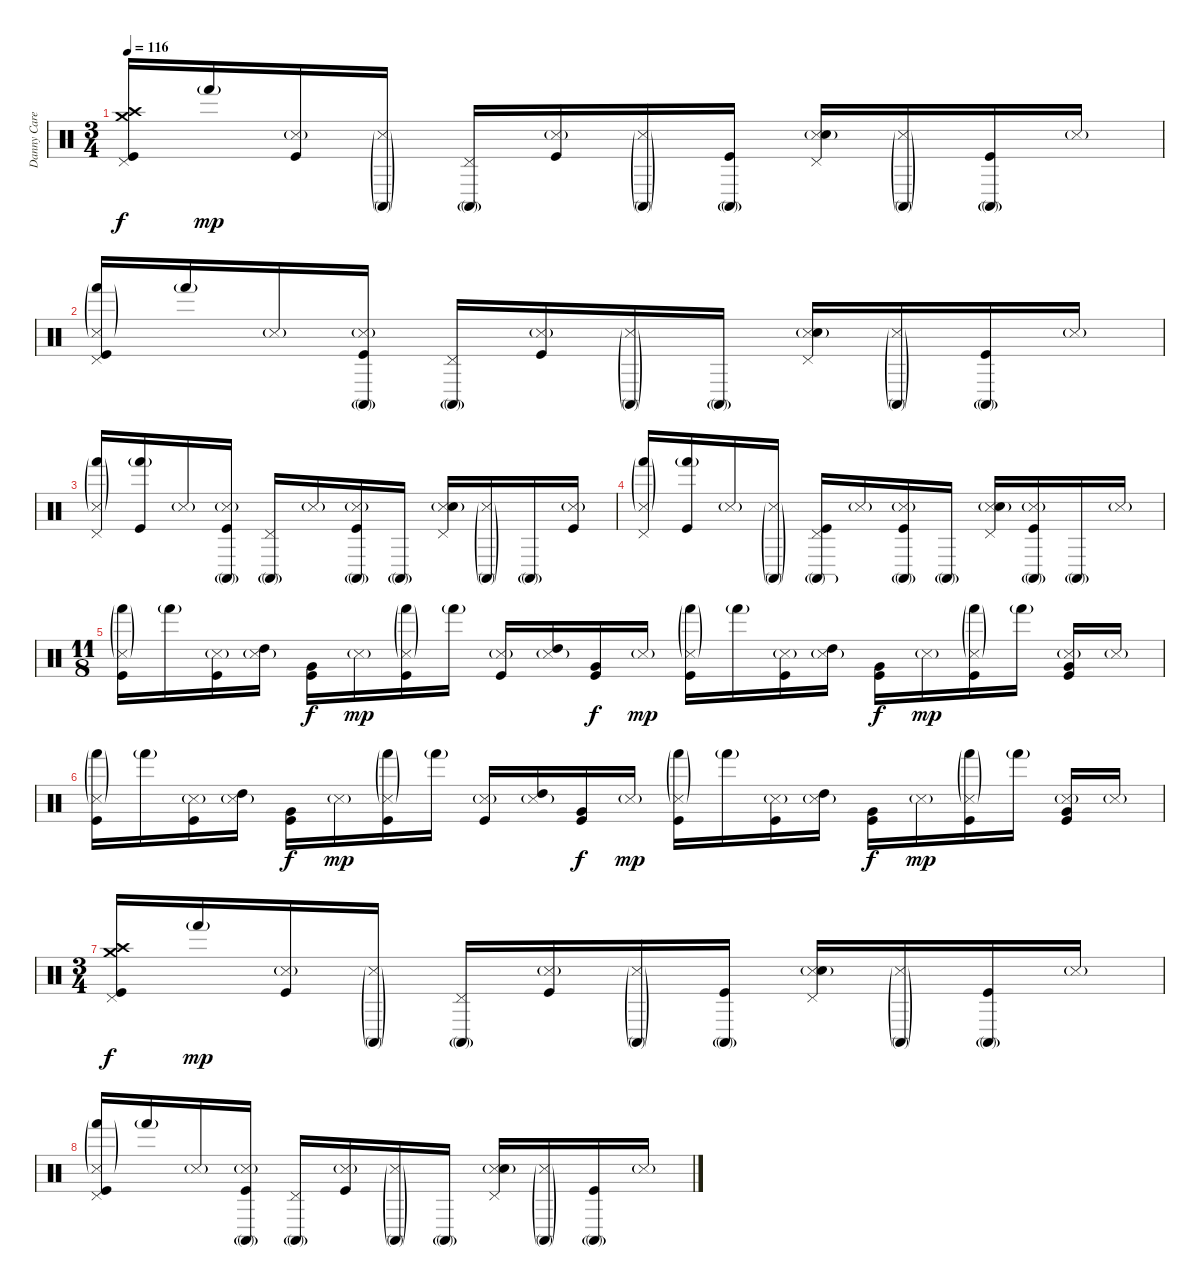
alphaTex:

\track ("Danny Carey (drum)" "Danny Care") {instrument percussion}
\staff {score}
\articulation defaults
\ts (3 4)
\tempo 116
\clef neutral
\ks c
("Crash medium (hit)" "Pedal Hi-Hat (hit)" "Crash high (hit)" "Kick (hit)").16{dy f} "Hand (hit)"{g}.16{dy mp} ("Snare (side stick) 3"{g} "Kick (hit)").16 ("Conga high (mute)"{g} "Snare (side stick) 3"{g}).16 ("Conga high (mute)"{g} "Pedal Hi-Hat (hit)").16 ("Snare (side stick) 3"{g} "Kick (hit)").16 ("Conga high (mute)"{g} "Snare (side stick) 3"{g}).16 ("Conga high (mute)"{g} "Kick (hit)").16 ("Pedal Hi-Hat (hit)" "Snare (side stick) 3"{g} "Snare (hit) 2").16 ("Conga high (mute)"{g} "Snare (side stick) 3"{g}).16 ("Conga high (mute)"{g} "Kick (hit)").16 "Snare (side stick) 3"{g}.16 |
("Hand (hit)"{g} "Pedal Hi-Hat (hit)" "Snare (side stick) 3"{g} "Kick (hit)").16 "Hand (hit)"{g}.16 "Snare (side stick) 3"{g}.16 ("Conga high (mute)"{g} "Snare (side stick) 3"{g} "Kick (hit)").16 ("Conga high (mute)"{g} "Pedal Hi-Hat (hit)").16 ("Snare (side stick) 3"{g} "Kick (hit)").16 ("Conga high (mute)"{g} "Snare (side stick) 3"{g}).16 "Conga high (mute)"{g}.16 ("Pedal Hi-Hat (hit)" "Snare (side stick) 3"{g} "Snare (hit) 2").16 ("Conga high (mute)"{g} "Snare (side stick) 3"{g}).16 ("Conga high (mute)"{g} "Kick (hit)").16 "Snare (side stick) 3"{g}.16 |
("Hand (hit)"{g} "Pedal Hi-Hat (hit)" "Snare (side stick) 3"{g}).16 ("Hand (hit)"{g} "Kick (hit)").16 "Snare (side stick) 3"{g}.16 ("Conga high (mute)"{g} "Snare (side stick) 3"{g} "Kick (hit)").16 ("Conga high (mute)"{g} "Pedal Hi-Hat (hit)").16 "Snare (side stick) 3"{g}.16 ("Conga high (mute)"{g} "Snare (side stick) 3"{g} "Kick (hit)").16 "Conga high (mute)"{g}.16 ("Pedal Hi-Hat (hit)" "Snare (side stick) 3"{g} "Snare (hit) 2").16 ("Conga high (mute)"{g} "Snare (side stick) 3"{g}).16 "Conga high (mute)"{g}.16 ("Snare (side stick) 3"{g} "Kick (hit)").16 |
("Hand (hit)"{g} "Pedal Hi-Hat (hit)" "Snare (side stick) 3"{g}).16 ("Hand (hit)"{g} "Kick (hit)").16 "Snare (side stick) 3"{g}.16 ("Conga high (mute)"{g} "Snare (side stick) 3"{g}).16 ("Conga high (mute)"{g} "Pedal Hi-Hat (hit)" "Kick (hit)").16 "Snare (side stick) 3"{g}.16 ("Conga high (mute)"{g} "Snare (side stick) 3"{g} "Kick (hit)").16 "Conga high (mute)"{g}.16 ("Pedal Hi-Hat (hit)" "Snare (side stick) 3"{g} "Snare (hit) 2").16 ("Conga high (mute)"{g} "Snare (side stick) 3"{g} "Kick (hit)").16 "Conga high (mute)"{g}.16 "Snare (side stick) 3"{g}.16 |
\ts (11 8)
("Hand (hit)"{g} "Snare (side stick) 3"{g} "Kick (hit)").16 "Hand (hit)"{g}.16 ("Snare (side stick) 3"{g} "Kick (hit)").16 ("High Tom (hit)" "Snare (side stick) 3"{g}).16 ("Very Low Tom (hit)" "Kick (hit)").16{dy f} "Snare (side stick) 3"{g}.16{dy mp} ("Hand (hit)"{g} "Snare (side stick) 3"{g} "Kick (hit)").16 "Hand (hit)"{g}.16 ("Snare (side stick) 3"{g} "Kick (hit)").16 ("High Tom (hit)" "Snare (side stick) 3"{g}).16 ("Very Low Tom (hit)" "Kick (hit)").16{dy f} "Snare (side stick) 3"{g}.16{dy mp} ("Hand (hit)"{g} "Snare (side stick) 3"{g} "Kick (hit)").16 "Hand (hit)"{g}.16 ("Snare (side stick) 3"{g} "Kick (hit)").16 ("High Tom (hit)" "Snare (side stick) 3"{g}).16 ("Very Low Tom (hit)" "Kick (hit)").16{dy f} "Snare (side stick) 3"{g}.16{dy mp} ("Hand (hit)"{g} "Snare (side stick) 3"{g} "Kick (hit)").16 "Hand (hit)"{g}.16 ("Snare (side stick) 3"{g} "Very Low Tom (hit)" "Kick (hit)").16 "Snare (side stick) 3"{g}.16 |
("Hand (hit)"{g} "Snare (side stick) 3"{g} "Kick (hit)").16 "Hand (hit)"{g}.16 ("Snare (side stick) 3"{g} "Kick (hit)").16 ("High Tom (hit)" "Snare (side stick) 3"{g}).16 ("Very Low Tom (hit)" "Kick (hit)").16{dy f} "Snare (side stick) 3"{g}.16{dy mp} ("Hand (hit)"{g} "Snare (side stick) 3"{g} "Kick (hit)").16 "Hand (hit)"{g}.16 ("Snare (side stick) 3"{g} "Kick (hit)").16 ("High Tom (hit)" "Snare (side stick) 3"{g}).16 ("Very Low Tom (hit)" "Kick (hit)").16{dy f} "Snare (side stick) 3"{g}.16{dy mp} ("Hand (hit)"{g} "Snare (side stick) 3"{g} "Kick (hit)").16 "Hand (hit)"{g}.16 ("Snare (side stick) 3"{g} "Kick (hit)").16 ("High Tom (hit)" "Snare (side stick) 3"{g}).16 ("Very Low Tom (hit)" "Kick (hit)").16{dy f} "Snare (side stick) 3"{g}.16{dy mp} ("Hand (hit)"{g} "Snare (side stick) 3"{g} "Kick (hit)").16 "Hand (hit)"{g}.16 ("Snare (side stick) 3"{g} "Very Low Tom (hit)" "Kick (hit)").16 "Snare (side stick) 3"{g}.16 |
\ts (3 4)
("Crash medium (hit)" "Pedal Hi-Hat (hit)" "Crash high (hit)" "Kick (hit)").16{dy f} "Hand (hit)"{g}.16{dy mp} ("Snare (side stick) 3"{g} "Kick (hit)").16 ("Conga high (mute)"{g} "Snare (side stick) 3"{g}).16 ("Conga high (mute)"{g} "Pedal Hi-Hat (hit)").16 ("Snare (side stick) 3"{g} "Kick (hit)").16 ("Conga high (mute)"{g} "Snare (side stick) 3"{g}).16 ("Conga high (mute)"{g} "Kick (hit)").16 ("Pedal Hi-Hat (hit)" "Snare (side stick) 3"{g} "Snare (hit) 2").16 ("Conga high (mute)"{g} "Snare (side stick) 3"{g}).16 ("Conga high (mute)"{g} "Kick (hit)").16 "Snare (side stick) 3"{g}.16 |
("Hand (hit)"{g} "Pedal Hi-Hat (hit)" "Snare (side stick) 3"{g} "Kick (hit)").16 "Hand (hit)"{g}.16 "Snare (side stick) 3"{g}.16 ("Conga high (mute)"{g} "Snare (side stick) 3"{g} "Kick (hit)").16 ("Conga high (mute)"{g} "Pedal Hi-Hat (hit)").16 ("Snare (side stick) 3"{g} "Kick (hit)").16 ("Conga high (mute)"{g} "Snare (side stick) 3"{g}).16 "Conga high (mute)"{g}.16 ("Pedal Hi-Hat (hit)" "Snare (side stick) 3"{g} "Snare (hit) 2").16 ("Conga high (mute)"{g} "Snare (side stick) 3"{g}).16 ("Conga high (mute)"{g} "Kick (hit)").16 "Snare (side stick) 3"{g}.16
